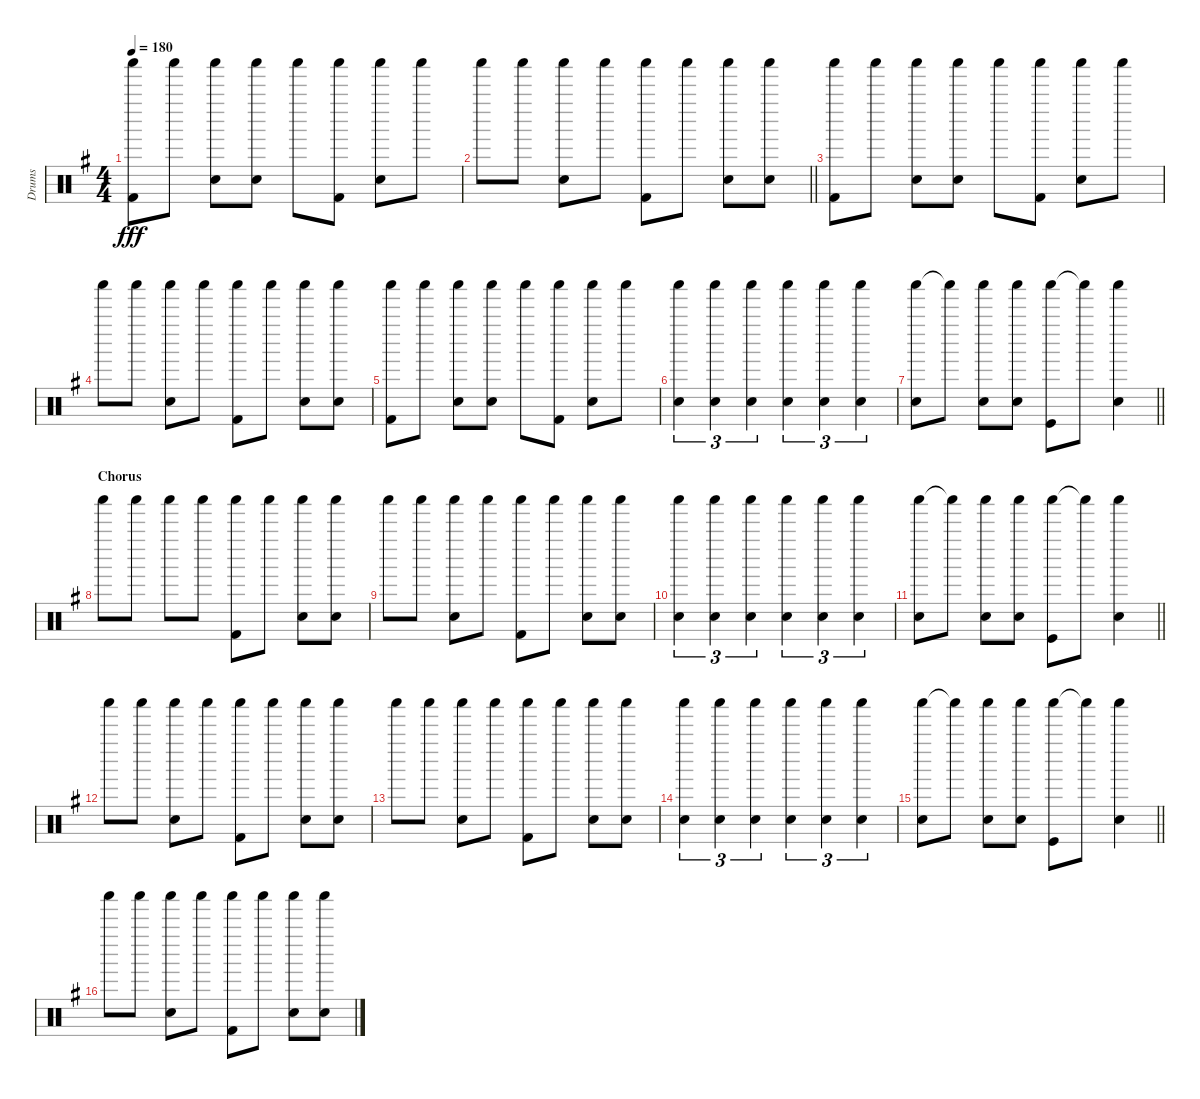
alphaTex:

\track ("Drums" "Drums") {instrument percussion}
\staff {score}
\articulation defaults
\ts (4 4)
\tempo 180
\clef neutral
\ks eminor
("Shaker (hit)" "Kick (hit) 2").8{dy fff} "Shaker (hit)".8 ("Shaker (hit)" "Snare (hit) 2").8 ("Shaker (hit)" "Snare (hit) 2").8 "Shaker (hit)".8 ("Shaker (hit)" "Kick (hit) 2").8 ("Shaker (hit)" "Snare (hit) 2").8 "Shaker (hit)".8 |
\barLineRight lightlight "Shaker (hit)".8 "Shaker (hit)".8
("Shaker (hit)" "Snare (hit) 2").8 "Shaker (hit)".8 ("Shaker (hit)" "Kick (hit) 2").8 "Shaker (hit)".8 ("Shaker (hit)" "Snare (hit) 2").8 ("Shaker (hit)" "Snare (hit) 2").8 |
("Shaker (hit)" "Kick (hit) 2").8 "Shaker (hit)".8 ("Shaker (hit)" "Snare (hit) 2").8 ("Shaker (hit)" "Snare (hit) 2").8 "Shaker (hit)".8 ("Shaker (hit)" "Kick (hit) 2").8 ("Shaker (hit)" "Snare (hit) 2").8 "Shaker (hit)".8 |
"Shaker (hit)".8 "Shaker (hit)".8 ("Shaker (hit)" "Snare (hit) 2").8 "Shaker (hit)".8 ("Shaker (hit)" "Kick (hit) 2").8 "Shaker (hit)".8 ("Shaker (hit)" "Snare (hit) 2").8 ("Shaker (hit)" "Snare (hit) 2").8 |
("Shaker (hit)" "Kick (hit) 2").8 "Shaker (hit)".8 ("Shaker (hit)" "Snare (hit) 2").8 ("Shaker (hit)" "Snare (hit) 2").8 "Shaker (hit)".8 ("Shaker (hit)" "Kick (hit) 2").8 ("Shaker (hit)" "Snare (hit) 2").8 "Shaker (hit)".8 |
("Shaker (hit)" "Snare (hit) 2").4{tu (3 2)} ("Shaker (hit)" "Snare (hit) 2").4{tu (3 2)} ("Shaker (hit)" "Snare (hit) 2").4{tu (3 2)} ("Shaker (hit)" "Snare (hit) 2").4{tu (3 2)} ("Shaker (hit)" "Snare (hit) 2").4{tu (3 2)} ("Shaker (hit)" "Snare (hit) 2").4{tu (3 2)} |
\barLineRight lightlight
("Shaker (hit)" "Snare (hit) 2").8 "Shaker (hit)"{t}.8 ("Shaker (hit)" "Snare (hit) 2").8 ("Shaker (hit)" "Snare (hit) 2").8 ("Shaker (hit)" "Kick (hit)").8 "Shaker (hit)"{t}.8 ("Shaker (hit)" "Snare (hit) 2").4 |
\section ("" "Chorus")
"Shaker (hit)".8 "Shaker (hit)".8 "Shaker (hit)".8 "Shaker (hit)".8 ("Shaker (hit)" "Kick (hit) 2").8 "Shaker (hit)".8 ("Shaker (hit)" "Snare (hit) 2").8 ("Shaker (hit)" "Snare (hit) 2").8 |
"Shaker (hit)".8 "Shaker (hit)".8 ("Shaker (hit)" "Snare (hit) 2").8 "Shaker (hit)".8 ("Shaker (hit)" "Kick (hit) 2").8 "Shaker (hit)".8 ("Shaker (hit)" "Snare (hit) 2").8 ("Shaker (hit)" "Snare (hit) 2").8 |
("Shaker (hit)" "Snare (hit) 2").4{tu (3 2)} ("Shaker (hit)" "Snare (hit) 2").4{tu (3 2)} ("Shaker (hit)" "Snare (hit) 2").4{tu (3 2)} ("Shaker (hit)" "Snare (hit) 2").4{tu (3 2)} ("Shaker (hit)" "Snare (hit) 2").4{tu (3 2)} ("Shaker (hit)" "Snare (hit) 2").4{tu (3 2)} |
\barLineRight lightlight
("Shaker (hit)" "Snare (hit) 2").8 "Shaker (hit)"{t}.8 ("Shaker (hit)" "Snare (hit) 2").8 ("Shaker (hit)" "Snare (hit) 2").8 ("Shaker (hit)" "Kick (hit)").8 "Shaker (hit)"{t}.8 ("Shaker (hit)" "Snare (hit) 2").4 |
"Shaker (hit)".8 "Shaker (hit)".8 ("Shaker (hit)" "Snare (hit) 2").8 "Shaker (hit)".8 ("Shaker (hit)" "Kick (hit) 2").8 "Shaker (hit)".8 ("Shaker (hit)" "Snare (hit) 2").8 ("Shaker (hit)" "Snare (hit) 2").8 |
"Shaker (hit)".8 "Shaker (hit)".8 ("Shaker (hit)" "Snare (hit) 2").8 "Shaker (hit)".8 ("Shaker (hit)" "Kick (hit) 2").8 "Shaker (hit)".8 ("Shaker (hit)" "Snare (hit) 2").8 ("Shaker (hit)" "Snare (hit) 2").8 |
("Shaker (hit)" "Snare (hit) 2").4{tu (3 2)} ("Shaker (hit)" "Snare (hit) 2").4{tu (3 2)} ("Shaker (hit)" "Snare (hit) 2").4{tu (3 2)} ("Shaker (hit)" "Snare (hit) 2").4{tu (3 2)} ("Shaker (hit)" "Snare (hit) 2").4{tu (3 2)} ("Shaker (hit)" "Snare (hit) 2").4{tu (3 2)} |
\barLineRight lightlight
("Shaker (hit)" "Snare (hit) 2").8 "Shaker (hit)"{t}.8 ("Shaker (hit)" "Snare (hit) 2").8 ("Shaker (hit)" "Snare (hit) 2").8 ("Shaker (hit)" "Kick (hit)").8 "Shaker (hit)"{t}.8 ("Shaker (hit)" "Snare (hit) 2").4 |
"Shaker (hit)".8 "Shaker (hit)".8 ("Shaker (hit)" "Snare (hit) 2").8 "Shaker (hit)".8 ("Shaker (hit)" "Kick (hit) 2").8 "Shaker (hit)".8 ("Shaker (hit)" "Snare (hit) 2").8 ("Shaker (hit)" "Snare (hit) 2").8
